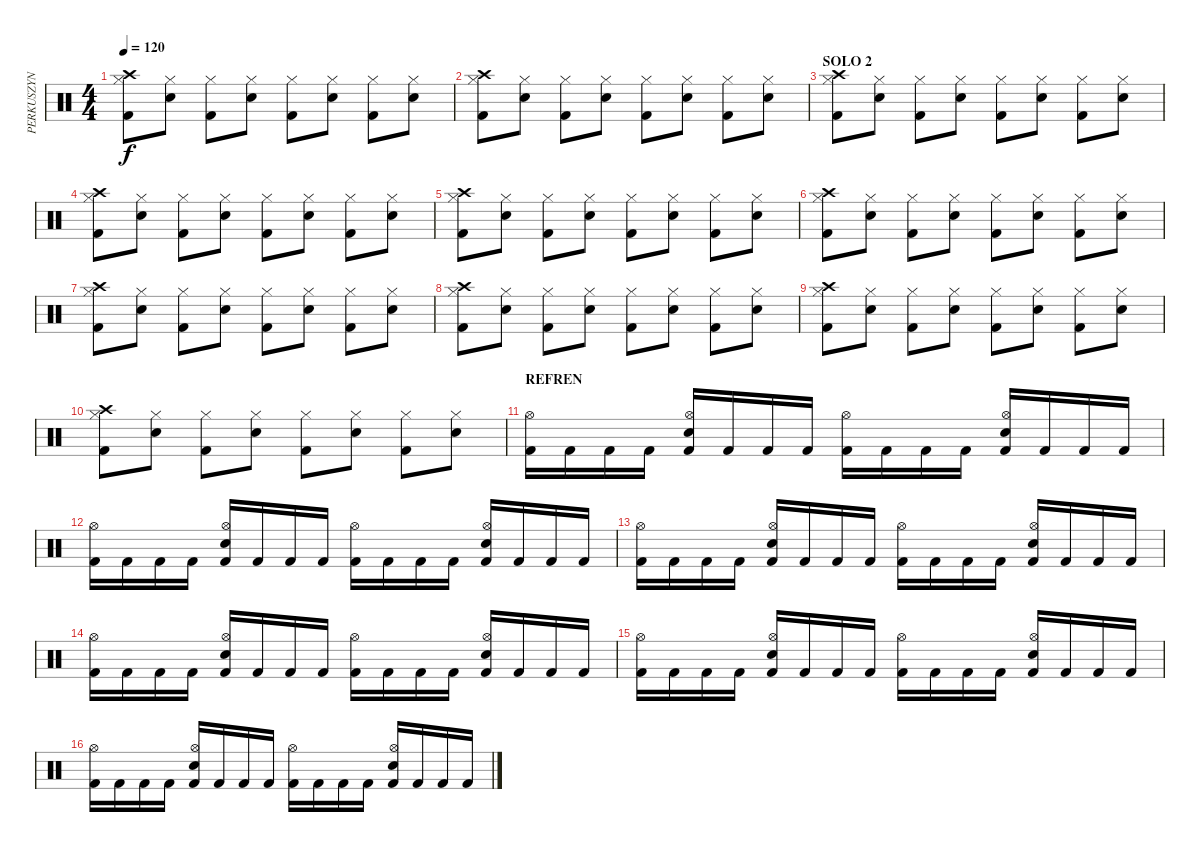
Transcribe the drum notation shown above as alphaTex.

\track ("PERKUSZYN" "PERKUSZYN") {instrument percussion}
\staff {score}
\articulation defaults
\ts (4 4)
\tempo 120
\clef neutral
\ks c
("Crash high (hit)" "Kick (hit) 2" "Hi-Hat (closed)").8{dy f} ("Snare (hit) 2" "Hi-Hat (closed)").8 ("Kick (hit) 2" "Hi-Hat (closed)").8 ("Snare (hit) 2" "Hi-Hat (closed)").8 ("Kick (hit) 2" "Hi-Hat (closed)").8 ("Snare (hit) 2" "Hi-Hat (closed)").8 ("Kick (hit) 2" "Hi-Hat (closed)").8 ("Snare (hit) 2" "Hi-Hat (closed)").8 |
("Crash high (hit)" "Kick (hit) 2" "Hi-Hat (closed)").8 ("Snare (hit) 2" "Hi-Hat (closed)").8 ("Kick (hit) 2" "Hi-Hat (closed)").8 ("Snare (hit) 2" "Hi-Hat (closed)").8 ("Kick (hit) 2" "Hi-Hat (closed)").8 ("Snare (hit) 2" "Hi-Hat (closed)").8 ("Kick (hit) 2" "Hi-Hat (closed)").8 ("Snare (hit) 2" "Hi-Hat (closed)").8 |
\section ("" "SOLO 2")
("Crash high (hit)" "Kick (hit) 2" "Hi-Hat (closed)").8 ("Snare (hit) 2" "Hi-Hat (closed)").8 ("Kick (hit) 2" "Hi-Hat (closed)").8 ("Snare (hit) 2" "Hi-Hat (closed)").8 ("Kick (hit) 2" "Hi-Hat (closed)").8 ("Snare (hit) 2" "Hi-Hat (closed)").8 ("Kick (hit) 2" "Hi-Hat (closed)").8 ("Snare (hit) 2" "Hi-Hat (closed)").8 |
("Crash high (hit)" "Kick (hit) 2" "Hi-Hat (closed)").8 ("Snare (hit) 2" "Hi-Hat (closed)").8 ("Kick (hit) 2" "Hi-Hat (closed)").8 ("Snare (hit) 2" "Hi-Hat (closed)").8 ("Kick (hit) 2" "Hi-Hat (closed)").8 ("Snare (hit) 2" "Hi-Hat (closed)").8 ("Kick (hit) 2" "Hi-Hat (closed)").8 ("Snare (hit) 2" "Hi-Hat (closed)").8 |
("Crash high (hit)" "Kick (hit) 2" "Hi-Hat (closed)").8 ("Snare (hit) 2" "Hi-Hat (closed)").8 ("Kick (hit) 2" "Hi-Hat (closed)").8 ("Snare (hit) 2" "Hi-Hat (closed)").8 ("Kick (hit) 2" "Hi-Hat (closed)").8 ("Snare (hit) 2" "Hi-Hat (closed)").8 ("Kick (hit) 2" "Hi-Hat (closed)").8 ("Snare (hit) 2" "Hi-Hat (closed)").8 |
("Crash high (hit)" "Kick (hit) 2" "Hi-Hat (closed)").8 ("Snare (hit) 2" "Hi-Hat (closed)").8 ("Kick (hit) 2" "Hi-Hat (closed)").8 ("Snare (hit) 2" "Hi-Hat (closed)").8 ("Kick (hit) 2" "Hi-Hat (closed)").8 ("Snare (hit) 2" "Hi-Hat (closed)").8 ("Kick (hit) 2" "Hi-Hat (closed)").8 ("Snare (hit) 2" "Hi-Hat (closed)").8 |
("Crash high (hit)" "Kick (hit) 2" "Hi-Hat (closed)").8 ("Snare (hit) 2" "Hi-Hat (closed)").8 ("Kick (hit) 2" "Hi-Hat (closed)").8 ("Snare (hit) 2" "Hi-Hat (closed)").8 ("Kick (hit) 2" "Hi-Hat (closed)").8 ("Snare (hit) 2" "Hi-Hat (closed)").8 ("Kick (hit) 2" "Hi-Hat (closed)").8 ("Snare (hit) 2" "Hi-Hat (closed)").8 |
("Crash high (hit)" "Kick (hit) 2" "Hi-Hat (closed)").8 ("Snare (hit) 2" "Hi-Hat (closed)").8 ("Kick (hit) 2" "Hi-Hat (closed)").8 ("Snare (hit) 2" "Hi-Hat (closed)").8 ("Kick (hit) 2" "Hi-Hat (closed)").8 ("Snare (hit) 2" "Hi-Hat (closed)").8 ("Kick (hit) 2" "Hi-Hat (closed)").8 ("Snare (hit) 2" "Hi-Hat (closed)").8 |
("Crash high (hit)" "Kick (hit) 2" "Hi-Hat (closed)").8 ("Snare (hit) 2" "Hi-Hat (closed)").8 ("Kick (hit) 2" "Hi-Hat (closed)").8 ("Snare (hit) 2" "Hi-Hat (closed)").8 ("Kick (hit) 2" "Hi-Hat (closed)").8 ("Snare (hit) 2" "Hi-Hat (closed)").8 ("Kick (hit) 2" "Hi-Hat (closed)").8 ("Snare (hit) 2" "Hi-Hat (closed)").8 |
("Crash high (hit)" "Kick (hit) 2" "Hi-Hat (closed)").8 ("Snare (hit) 2" "Hi-Hat (closed)").8 ("Kick (hit) 2" "Hi-Hat (closed)").8 ("Snare (hit) 2" "Hi-Hat (closed)").8 ("Kick (hit) 2" "Hi-Hat (closed)").8 ("Snare (hit) 2" "Hi-Hat (closed)").8 ("Kick (hit) 2" "Hi-Hat (closed)").8 ("Snare (hit) 2" "Hi-Hat (closed)").8 |
\section ("" "REFREN")
("Hi-Hat (open)" "Kick (hit) 2").16 "Kick (hit) 2".16 "Kick (hit) 2".16 "Kick (hit) 2".16 ("Hi-Hat (open)" "Electric Snare (hit)" "Kick (hit) 2").16 "Kick (hit) 2".16 "Kick (hit) 2".16 "Kick (hit) 2".16 ("Hi-Hat (open)" "Kick (hit) 2").16 "Kick (hit) 2".16 "Kick (hit) 2".16 "Kick (hit) 2".16 ("Hi-Hat (open)" "Electric Snare (hit)" "Kick (hit) 2").16 "Kick (hit) 2".16 "Kick (hit) 2".16 "Kick (hit) 2".16 |
("Hi-Hat (open)" "Kick (hit) 2").16 "Kick (hit) 2".16 "Kick (hit) 2".16 "Kick (hit) 2".16 ("Hi-Hat (open)" "Electric Snare (hit)" "Kick (hit) 2").16 "Kick (hit) 2".16 "Kick (hit) 2".16 "Kick (hit) 2".16 ("Hi-Hat (open)" "Kick (hit) 2").16 "Kick (hit) 2".16 "Kick (hit) 2".16 "Kick (hit) 2".16 ("Hi-Hat (open)" "Electric Snare (hit)" "Kick (hit) 2").16 "Kick (hit) 2".16 "Kick (hit) 2".16 "Kick (hit) 2".16 |
("Hi-Hat (open)" "Kick (hit) 2").16 "Kick (hit) 2".16 "Kick (hit) 2".16 "Kick (hit) 2".16 ("Hi-Hat (open)" "Electric Snare (hit)" "Kick (hit) 2").16 "Kick (hit) 2".16 "Kick (hit) 2".16 "Kick (hit) 2".16 ("Hi-Hat (open)" "Kick (hit) 2").16 "Kick (hit) 2".16 "Kick (hit) 2".16 "Kick (hit) 2".16 ("Hi-Hat (open)" "Electric Snare (hit)" "Kick (hit) 2").16 "Kick (hit) 2".16 "Kick (hit) 2".16 "Kick (hit) 2".16 |
("Hi-Hat (open)" "Kick (hit) 2").16 "Kick (hit) 2".16 "Kick (hit) 2".16 "Kick (hit) 2".16 ("Hi-Hat (open)" "Electric Snare (hit)" "Kick (hit) 2").16 "Kick (hit) 2".16 "Kick (hit) 2".16 "Kick (hit) 2".16 ("Hi-Hat (open)" "Kick (hit) 2").16 "Kick (hit) 2".16 "Kick (hit) 2".16 "Kick (hit) 2".16 ("Hi-Hat (open)" "Electric Snare (hit)" "Kick (hit) 2").16 "Kick (hit) 2".16 "Kick (hit) 2".16 "Kick (hit) 2".16 |
("Hi-Hat (open)" "Kick (hit) 2").16 "Kick (hit) 2".16 "Kick (hit) 2".16 "Kick (hit) 2".16 ("Hi-Hat (open)" "Electric Snare (hit)" "Kick (hit) 2").16 "Kick (hit) 2".16 "Kick (hit) 2".16 "Kick (hit) 2".16 ("Hi-Hat (open)" "Kick (hit) 2").16 "Kick (hit) 2".16 "Kick (hit) 2".16 "Kick (hit) 2".16 ("Hi-Hat (open)" "Electric Snare (hit)" "Kick (hit) 2").16 "Kick (hit) 2".16 "Kick (hit) 2".16 "Kick (hit) 2".16 |
("Hi-Hat (open)" "Kick (hit) 2").16 "Kick (hit) 2".16 "Kick (hit) 2".16 "Kick (hit) 2".16 ("Hi-Hat (open)" "Electric Snare (hit)" "Kick (hit) 2").16 "Kick (hit) 2".16 "Kick (hit) 2".16 "Kick (hit) 2".16 ("Hi-Hat (open)" "Kick (hit) 2").16 "Kick (hit) 2".16 "Kick (hit) 2".16 "Kick (hit) 2".16 ("Hi-Hat (open)" "Electric Snare (hit)" "Kick (hit) 2").16 "Kick (hit) 2".16 "Kick (hit) 2".16 "Kick (hit) 2".16
